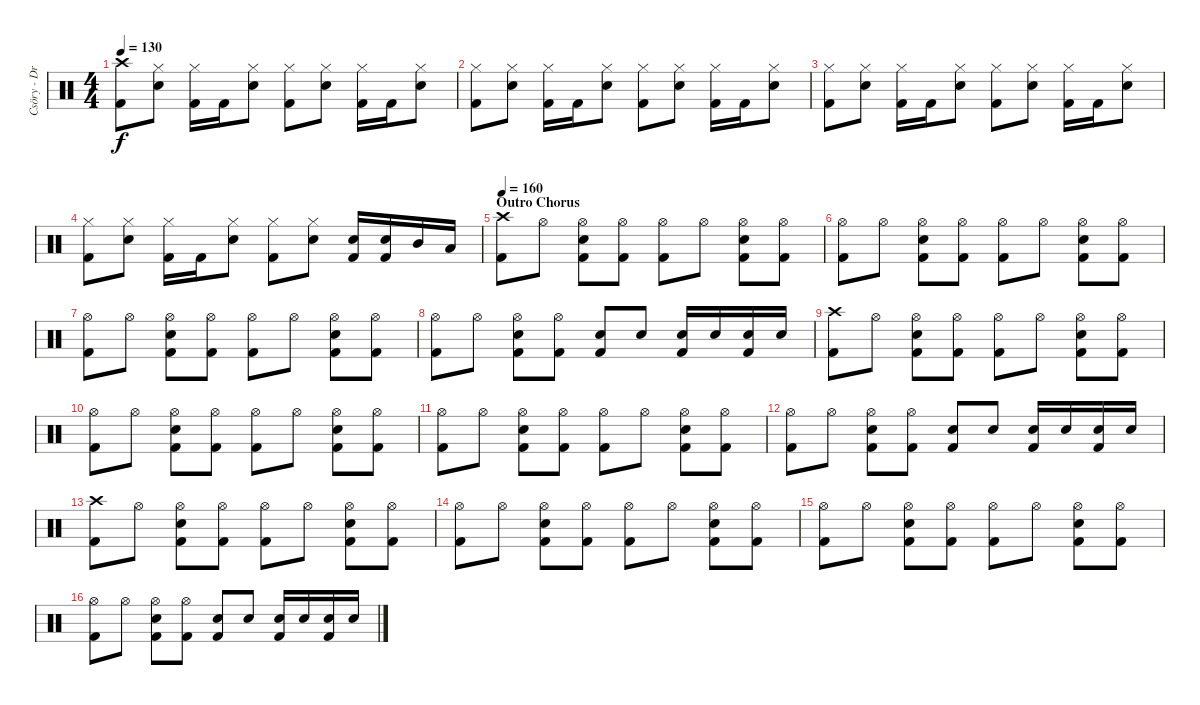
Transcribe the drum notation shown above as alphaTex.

\track ("Csöry - DrumZ" "Csöry - Dr") {instrument percussion}
\staff {score}
\articulation defaults
\ts (4 4)
\tempo 130
\clef neutral
\ks c
("Crash high (hit)" "Kick (hit) 2").8{dy f} ("Hi-Hat (closed)" "Snare (hit) 2").8 ("Hi-Hat (closed)" "Kick (hit) 2").16 "Kick (hit) 2".16 ("Hi-Hat (closed)" "Snare (hit) 2").8 ("Hi-Hat (closed)" "Kick (hit) 2").8 ("Hi-Hat (closed)" "Snare (hit) 2").8 ("Hi-Hat (closed)" "Kick (hit) 2").16 "Kick (hit) 2".16 ("Hi-Hat (closed)" "Snare (hit) 2").8 |
("Hi-Hat (closed)" "Kick (hit) 2").8 ("Hi-Hat (closed)" "Snare (hit) 2").8 ("Hi-Hat (closed)" "Kick (hit) 2").16 "Kick (hit) 2".16 ("Hi-Hat (closed)" "Snare (hit) 2").8 ("Hi-Hat (closed)" "Kick (hit) 2").8 ("Hi-Hat (closed)" "Snare (hit) 2").8 ("Hi-Hat (closed)" "Kick (hit) 2").16 "Kick (hit) 2".16 ("Hi-Hat (closed)" "Snare (hit) 2").8 |
("Hi-Hat (closed)" "Kick (hit) 2").8 ("Hi-Hat (closed)" "Snare (hit) 2").8 ("Hi-Hat (closed)" "Kick (hit) 2").16 "Kick (hit) 2".16 ("Hi-Hat (closed)" "Snare (hit) 2").8 ("Hi-Hat (closed)" "Kick (hit) 2").8 ("Hi-Hat (closed)" "Snare (hit) 2").8 ("Hi-Hat (closed)" "Kick (hit) 2").16 "Kick (hit) 2".16 ("Hi-Hat (closed)" "Snare (hit) 2").8 |
("Hi-Hat (closed)" "Kick (hit) 2").8 ("Hi-Hat (closed)" "Snare (hit) 2").8 ("Hi-Hat (closed)" "Kick (hit) 2").16 "Kick (hit) 2".16 ("Hi-Hat (closed)" "Snare (hit) 2").8 ("Hi-Hat (closed)" "Kick (hit) 2").8 ("Hi-Hat (closed)" "Snare (hit) 2").8 ("Snare (hit) 2" "Kick (hit) 2").16 ("Snare (hit) 2" "Kick (hit) 2").16 "Mid Tom (hit)".16 "Low Tom (hit)".16 |
\section ("" "Outro Chorus")
\tempo 160
("Crash high (hit)" "Kick (hit) 2").8 "Hi-Hat (open)".8 ("Hi-Hat (open)" "Snare (hit) 2" "Kick (hit) 2").8 ("Hi-Hat (open)" "Kick (hit) 2").8 ("Hi-Hat (open)" "Kick (hit) 2").8 "Hi-Hat (open)".8 ("Hi-Hat (open)" "Snare (hit) 2" "Kick (hit) 2").8 ("Hi-Hat (open)" "Kick (hit) 2").8 |
("Hi-Hat (open)" "Kick (hit) 2").8 "Hi-Hat (open)".8 ("Hi-Hat (open)" "Snare (hit) 2" "Kick (hit) 2").8 ("Hi-Hat (open)" "Kick (hit) 2").8 ("Hi-Hat (open)" "Kick (hit) 2").8 "Hi-Hat (open)".8 ("Hi-Hat (open)" "Snare (hit) 2" "Kick (hit) 2").8 ("Hi-Hat (open)" "Kick (hit) 2").8 |
("Hi-Hat (open)" "Kick (hit) 2").8 "Hi-Hat (open)".8 ("Hi-Hat (open)" "Snare (hit) 2" "Kick (hit) 2").8 ("Hi-Hat (open)" "Kick (hit) 2").8 ("Hi-Hat (open)" "Kick (hit) 2").8 "Hi-Hat (open)".8 ("Hi-Hat (open)" "Snare (hit) 2" "Kick (hit) 2").8 ("Hi-Hat (open)" "Kick (hit) 2").8 |
("Hi-Hat (open)" "Kick (hit) 2").8 "Hi-Hat (open)".8 ("Hi-Hat (open)" "Snare (hit) 2" "Kick (hit) 2").8 ("Hi-Hat (open)" "Kick (hit) 2").8 ("Snare (hit) 2" "Kick (hit) 2").8 "Snare (hit) 2".8 ("Snare (hit) 2" "Kick (hit) 2").16 "Snare (hit) 2".16 ("Snare (hit) 2" "Kick (hit) 2").16 "Snare (hit) 2".16 |
("Crash high (hit)" "Kick (hit) 2").8 "Hi-Hat (open)".8 ("Hi-Hat (open)" "Snare (hit) 2" "Kick (hit) 2").8 ("Hi-Hat (open)" "Kick (hit) 2").8 ("Hi-Hat (open)" "Kick (hit) 2").8 "Hi-Hat (open)".8 ("Hi-Hat (open)" "Snare (hit) 2" "Kick (hit) 2").8 ("Hi-Hat (open)" "Kick (hit) 2").8 |
("Hi-Hat (open)" "Kick (hit) 2").8 "Hi-Hat (open)".8 ("Hi-Hat (open)" "Snare (hit) 2" "Kick (hit) 2").8 ("Hi-Hat (open)" "Kick (hit) 2").8 ("Hi-Hat (open)" "Kick (hit) 2").8 "Hi-Hat (open)".8 ("Hi-Hat (open)" "Snare (hit) 2" "Kick (hit) 2").8 ("Hi-Hat (open)" "Kick (hit) 2").8 |
("Hi-Hat (open)" "Kick (hit) 2").8 "Hi-Hat (open)".8 ("Hi-Hat (open)" "Snare (hit) 2" "Kick (hit) 2").8 ("Hi-Hat (open)" "Kick (hit) 2").8 ("Hi-Hat (open)" "Kick (hit) 2").8 "Hi-Hat (open)".8 ("Hi-Hat (open)" "Snare (hit) 2" "Kick (hit) 2").8 ("Hi-Hat (open)" "Kick (hit) 2").8 |
("Hi-Hat (open)" "Kick (hit) 2").8 "Hi-Hat (open)".8 ("Hi-Hat (open)" "Snare (hit) 2" "Kick (hit) 2").8 ("Hi-Hat (open)" "Kick (hit) 2").8 ("Snare (hit) 2" "Kick (hit) 2").8 "Snare (hit) 2".8 ("Snare (hit) 2" "Kick (hit) 2").16 "Snare (hit) 2".16 ("Snare (hit) 2" "Kick (hit) 2").16 "Snare (hit) 2".16 |
("Crash high (hit)" "Kick (hit) 2").8 "Hi-Hat (open)".8 ("Hi-Hat (open)" "Snare (hit) 2" "Kick (hit) 2").8 ("Hi-Hat (open)" "Kick (hit) 2").8 ("Hi-Hat (open)" "Kick (hit) 2").8 "Hi-Hat (open)".8 ("Hi-Hat (open)" "Snare (hit) 2" "Kick (hit) 2").8 ("Hi-Hat (open)" "Kick (hit) 2").8 |
("Hi-Hat (open)" "Kick (hit) 2").8 "Hi-Hat (open)".8 ("Hi-Hat (open)" "Snare (hit) 2" "Kick (hit) 2").8 ("Hi-Hat (open)" "Kick (hit) 2").8 ("Hi-Hat (open)" "Kick (hit) 2").8 "Hi-Hat (open)".8 ("Hi-Hat (open)" "Snare (hit) 2" "Kick (hit) 2").8 ("Hi-Hat (open)" "Kick (hit) 2").8 |
("Hi-Hat (open)" "Kick (hit) 2").8 "Hi-Hat (open)".8 ("Hi-Hat (open)" "Snare (hit) 2" "Kick (hit) 2").8 ("Hi-Hat (open)" "Kick (hit) 2").8 ("Hi-Hat (open)" "Kick (hit) 2").8 "Hi-Hat (open)".8 ("Hi-Hat (open)" "Snare (hit) 2" "Kick (hit) 2").8 ("Hi-Hat (open)" "Kick (hit) 2").8 |
("Hi-Hat (open)" "Kick (hit) 2").8 "Hi-Hat (open)".8 ("Hi-Hat (open)" "Snare (hit) 2" "Kick (hit) 2").8 ("Hi-Hat (open)" "Kick (hit) 2").8 ("Snare (hit) 2" "Kick (hit) 2").8 "Snare (hit) 2".8 ("Snare (hit) 2" "Kick (hit) 2").16 "Snare (hit) 2".16 ("Snare (hit) 2" "Kick (hit) 2").16 "Snare (hit) 2".16
